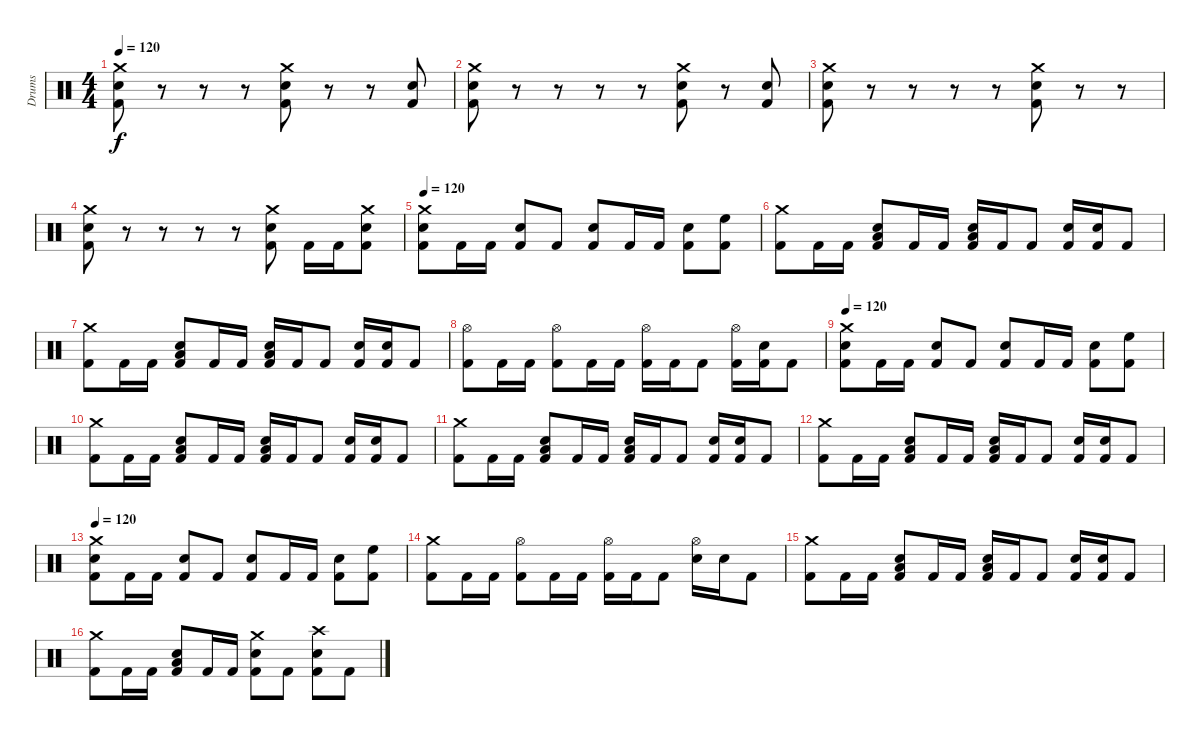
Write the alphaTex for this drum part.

\track ("Drums" "Drums") {instrument percussion}
\staff {score}
\articulation defaults
\ts (4 4)
\tempo 120
\clef neutral
\ks c
("Crash medium (hit)" "Snare (hit) 2" "Kick (hit) 2").8{dy f} r.8 r.8 r.8 ("Crash medium (hit)" "Snare (hit) 2" "Kick (hit) 2").8 r.8 r.8 ("Snare (hit) 2" "Kick (hit) 2").8 |
("Crash medium (hit)" "Snare (hit) 2" "Kick (hit) 2").8 r.8 r.8 r.8 r.8 ("Crash medium (hit)" "Snare (hit) 2" "Kick (hit) 2").8 r.8 ("Snare (hit) 2" "Kick (hit) 2").8 |
("Crash medium (hit)" "Snare (hit) 2" "Kick (hit) 2").8 r.8 r.8 r.8 r.8 ("Crash medium (hit)" "Snare (hit) 2" "Kick (hit) 2").8 r.8 r.8 |
("Crash medium (hit)" "Snare (hit) 2" "Kick (hit) 2").8 r.8 r.8 r.8 r.8 ("Crash medium (hit)" "Snare (hit) 2" "Kick (hit) 2").8 "Kick (hit) 2".16 "Kick (hit) 2".16 ("Crash medium (hit)" "Snare (hit) 2" "Kick (hit) 2").8 |
\tempo 120
("Crash medium (hit)" "Snare (hit) 2" "Kick (hit) 2").8 "Kick (hit) 2".16 "Kick (hit) 2".16 ("Snare (hit) 2" "Kick (hit) 2").8 "Kick (hit) 2".8 ("Snare (hit) 2" "Kick (hit) 2").8 "Kick (hit) 2".16 "Kick (hit) 2".16 ("Snare (hit) 2" "Kick (hit) 2").8 ("High Floor Tom (hit)" "Kick (hit) 2").8 |
("Crash medium (hit)" "Kick (hit) 2").8 "Kick (hit) 2".16 "Kick (hit) 2".16 ("Low Floor Tom (hit)" "Snare (hit) 2" "Kick (hit) 2").8 "Kick (hit) 2".16 "Kick (hit) 2".16 ("Low Floor Tom (hit)" "Snare (hit) 2" "Kick (hit) 2").16 "Kick (hit) 2".16 "Kick (hit) 2".8 ("Snare (hit) 2" "Kick (hit) 2").16 ("Snare (hit) 2" "Kick (hit) 2").16 "Kick (hit) 2".8 |
("Crash medium (hit)" "Kick (hit) 2").8 "Kick (hit) 2".16 "Kick (hit) 2".16 ("Low Floor Tom (hit)" "Snare (hit) 2" "Kick (hit) 2").8 "Kick (hit) 2".16 "Kick (hit) 2".16 ("Low Floor Tom (hit)" "Snare (hit) 2" "Kick (hit) 2").16 "Kick (hit) 2".16 "Kick (hit) 2".8 ("Snare (hit) 2" "Kick (hit) 2").16 ("Snare (hit) 2" "Kick (hit) 2").16 "Kick (hit) 2".8 |
("Hi-Hat (open)" "Kick (hit) 2").8 "Kick (hit) 2".16 "Kick (hit) 2".16 ("Hi-Hat (open)" "Kick (hit) 2").8 "Kick (hit) 2".16 "Kick (hit) 2".16 ("Hi-Hat (open)" "Kick (hit) 2").16 "Kick (hit) 2".16 "Kick (hit) 2".8 ("Hi-Hat (open)" "Kick (hit) 2").16 ("Snare (hit) 2" "Kick (hit) 2").16 "Kick (hit) 2".8 |
\tempo 120
("Crash medium (hit)" "Snare (hit) 2" "Kick (hit) 2").8 "Kick (hit) 2".16 "Kick (hit) 2".16 ("Snare (hit) 2" "Kick (hit) 2").8 "Kick (hit) 2".8 ("Snare (hit) 2" "Kick (hit) 2").8 "Kick (hit) 2".16 "Kick (hit) 2".16 ("Snare (hit) 2" "Kick (hit) 2").8 ("High Floor Tom (hit)" "Kick (hit) 2").8 |
("Crash medium (hit)" "Kick (hit) 2").8 "Kick (hit) 2".16 "Kick (hit) 2".16 ("Low Floor Tom (hit)" "Snare (hit) 2" "Kick (hit) 2").8 "Kick (hit) 2".16 "Kick (hit) 2".16 ("Low Floor Tom (hit)" "Snare (hit) 2" "Kick (hit) 2").16 "Kick (hit) 2".16 "Kick (hit) 2".8 ("Snare (hit) 2" "Kick (hit) 2").16 ("Snare (hit) 2" "Kick (hit) 2").16 "Kick (hit) 2".8 |
("Crash medium (hit)" "Kick (hit) 2").8 "Kick (hit) 2".16 "Kick (hit) 2".16 ("Low Floor Tom (hit)" "Snare (hit) 2" "Kick (hit) 2").8 "Kick (hit) 2".16 "Kick (hit) 2".16 ("Low Floor Tom (hit)" "Snare (hit) 2" "Kick (hit) 2").16 "Kick (hit) 2".16 "Kick (hit) 2".8 ("Snare (hit) 2" "Kick (hit) 2").16 ("Snare (hit) 2" "Kick (hit) 2").16 "Kick (hit) 2".8 |
("Crash medium (hit)" "Kick (hit) 2").8 "Kick (hit) 2".16 "Kick (hit) 2".16 ("Low Floor Tom (hit)" "Snare (hit) 2" "Kick (hit) 2").8 "Kick (hit) 2".16 "Kick (hit) 2".16 ("Low Floor Tom (hit)" "Snare (hit) 2" "Kick (hit) 2").16 "Kick (hit) 2".16 "Kick (hit) 2".8 ("Snare (hit) 2" "Kick (hit) 2").16 ("Snare (hit) 2" "Kick (hit) 2").16 "Kick (hit) 2".8 |
\tempo 120
("Crash medium (hit)" "Snare (hit) 2" "Kick (hit) 2").8 "Kick (hit) 2".16 "Kick (hit) 2".16 ("Snare (hit) 2" "Kick (hit) 2").8 "Kick (hit) 2".8 ("Snare (hit) 2" "Kick (hit) 2").8 "Kick (hit) 2".16 "Kick (hit) 2".16 ("Snare (hit) 2" "Kick (hit) 2").8 ("High Floor Tom (hit)" "Kick (hit) 2").8 |
("Crash medium (hit)" "Kick (hit) 2").8 "Kick (hit) 2".16 "Kick (hit) 2".16 ("Hi-Hat (open)" "Kick (hit) 2").8 "Kick (hit) 2".16 "Kick (hit) 2".16 ("Hi-Hat (open)" "Kick (hit) 2").16 "Kick (hit) 2".16 "Kick (hit) 2".8 ("Hi-Hat (open)" "Snare (hit) 2").16 "Snare (hit) 2".16 "Kick (hit) 2".8 |
("Crash medium (hit)" "Kick (hit) 2").8 "Kick (hit) 2".16 "Kick (hit) 2".16 ("Low Floor Tom (hit)" "Snare (hit) 2" "Kick (hit) 2").8 "Kick (hit) 2".16 "Kick (hit) 2".16 ("Low Floor Tom (hit)" "Snare (hit) 2" "Kick (hit) 2").16 "Kick (hit) 2".16 "Kick (hit) 2".8 ("Snare (hit) 2" "Kick (hit) 2").16 ("Snare (hit) 2" "Kick (hit) 2").16 "Kick (hit) 2".8 |
("Crash medium (hit)" "Kick (hit) 2").8 "Kick (hit) 2".16 "Kick (hit) 2".16 ("Low Floor Tom (hit)" "Snare (hit) 2" "Kick (hit) 2").8 "Kick (hit) 2".16 "Kick (hit) 2".16 ("Crash medium (hit)" "Snare (hit) 2" "Kick (hit) 2").8 "Kick (hit) 2".8 ("Crash high (hit)" "Snare (hit) 2" "Kick (hit) 2").8 "Kick (hit) 2".8
